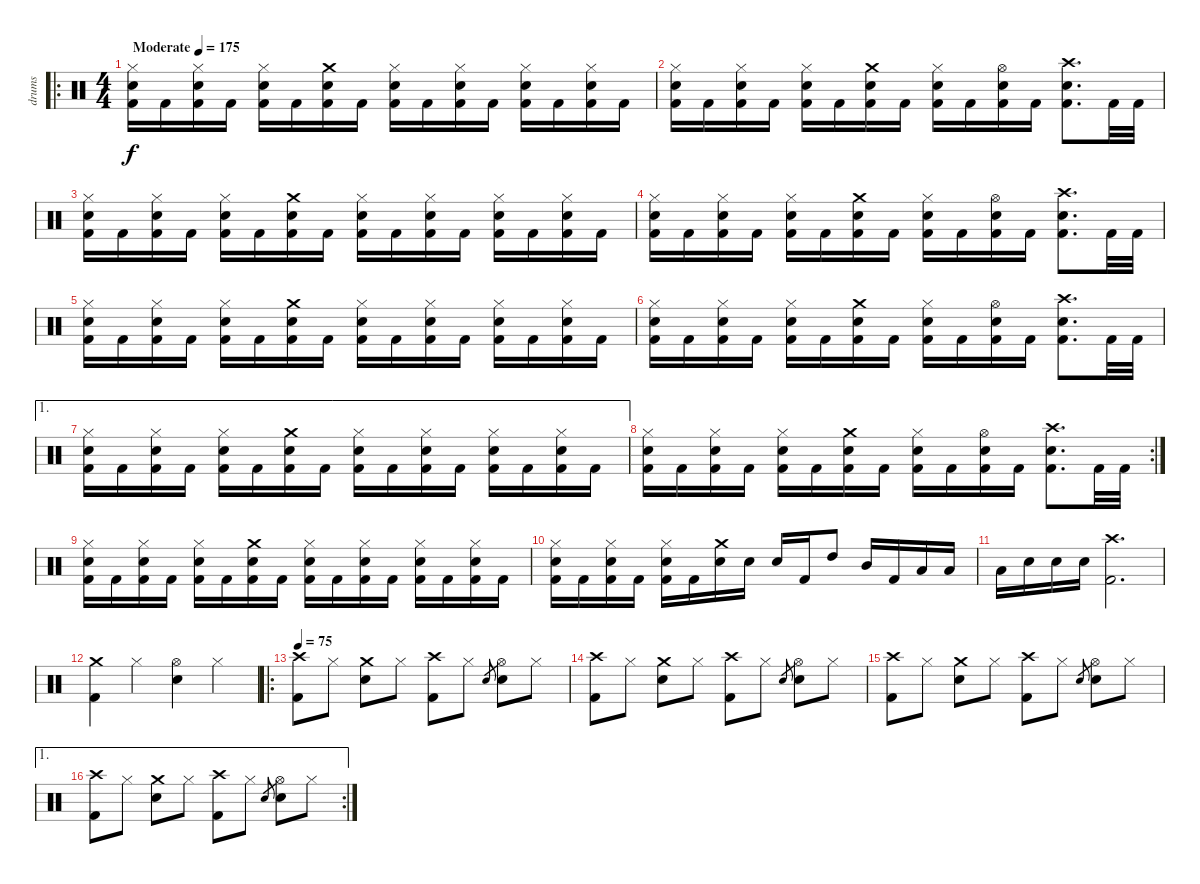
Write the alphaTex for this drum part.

\track ("drums" "drums") {instrument percussion}
\staff {score}
\articulation defaults
\ro
\ts (4 4)
\tempo (175 "Moderate")
\clef neutral
\ks c
("Hi-Hat (closed)" "Electric Snare (hit)" "Kick (hit) 2").16{dy f} "Kick (hit) 2".16 ("Hi-Hat (closed)" "Electric Snare (hit)" "Kick (hit) 2").16 "Kick (hit) 2".16 ("Hi-Hat (closed)" "Electric Snare (hit)" "Kick (hit) 2").16 "Kick (hit) 2".16 ("Crash medium (hit)" "Electric Snare (hit)" "Kick (hit) 2").16 "Kick (hit) 2".16 ("Hi-Hat (closed)" "Electric Snare (hit)" "Kick (hit) 2").16 "Kick (hit) 2".16 ("Hi-Hat (closed)" "Electric Snare (hit)" "Kick (hit) 2").16 "Kick (hit) 2".16 ("Hi-Hat (closed)" "Electric Snare (hit)" "Kick (hit) 2").16 "Kick (hit) 2".16 ("Hi-Hat (closed)" "Electric Snare (hit)" "Kick (hit) 2").16 "Kick (hit) 2".16 |
("Hi-Hat (closed)" "Electric Snare (hit)" "Kick (hit) 2").16 "Kick (hit) 2".16 ("Hi-Hat (closed)" "Electric Snare (hit)" "Kick (hit) 2").16 "Kick (hit) 2".16 ("Hi-Hat (closed)" "Electric Snare (hit)" "Kick (hit) 2").16 "Kick (hit) 2".16 ("Crash medium (hit)" "Electric Snare (hit)" "Kick (hit) 2").16 "Kick (hit) 2".16 ("Hi-Hat (closed)" "Electric Snare (hit)" "Kick (hit) 2").16 "Kick (hit) 2".16 ("Hi-Hat (open)" "Electric Snare (hit)" "Kick (hit) 2").16 "Kick (hit) 2".16 ("Crash high (hit)" "Electric Snare (hit)" "Kick (hit) 2").8{d} "Kick (hit) 2".32 "Kick (hit) 2".32 |
("Hi-Hat (closed)" "Electric Snare (hit)" "Kick (hit) 2").16 "Kick (hit) 2".16 ("Hi-Hat (closed)" "Electric Snare (hit)" "Kick (hit) 2").16 "Kick (hit) 2".16 ("Hi-Hat (closed)" "Electric Snare (hit)" "Kick (hit) 2").16 "Kick (hit) 2".16 ("Crash medium (hit)" "Electric Snare (hit)" "Kick (hit) 2").16 "Kick (hit) 2".16 ("Hi-Hat (closed)" "Electric Snare (hit)" "Kick (hit) 2").16 "Kick (hit) 2".16 ("Hi-Hat (closed)" "Electric Snare (hit)" "Kick (hit) 2").16 "Kick (hit) 2".16 ("Hi-Hat (closed)" "Electric Snare (hit)" "Kick (hit) 2").16 "Kick (hit) 2".16 ("Hi-Hat (closed)" "Electric Snare (hit)" "Kick (hit) 2").16 "Kick (hit) 2".16 |
("Hi-Hat (closed)" "Electric Snare (hit)" "Kick (hit) 2").16 "Kick (hit) 2".16 ("Hi-Hat (closed)" "Electric Snare (hit)" "Kick (hit) 2").16 "Kick (hit) 2".16 ("Hi-Hat (closed)" "Electric Snare (hit)" "Kick (hit) 2").16 "Kick (hit) 2".16 ("Crash medium (hit)" "Electric Snare (hit)" "Kick (hit) 2").16 "Kick (hit) 2".16 ("Hi-Hat (closed)" "Electric Snare (hit)" "Kick (hit) 2").16 "Kick (hit) 2".16 ("Hi-Hat (open)" "Electric Snare (hit)" "Kick (hit) 2").16 "Kick (hit) 2".16 ("Crash high (hit)" "Electric Snare (hit)" "Kick (hit) 2").8{d} "Kick (hit) 2".32 "Kick (hit) 2".32 |
("Hi-Hat (closed)" "Electric Snare (hit)" "Kick (hit) 2").16 "Kick (hit) 2".16 ("Hi-Hat (closed)" "Electric Snare (hit)" "Kick (hit) 2").16 "Kick (hit) 2".16 ("Hi-Hat (closed)" "Electric Snare (hit)" "Kick (hit) 2").16 "Kick (hit) 2".16 ("Crash medium (hit)" "Electric Snare (hit)" "Kick (hit) 2").16 "Kick (hit) 2".16 ("Hi-Hat (closed)" "Electric Snare (hit)" "Kick (hit) 2").16 "Kick (hit) 2".16 ("Hi-Hat (closed)" "Electric Snare (hit)" "Kick (hit) 2").16 "Kick (hit) 2".16 ("Hi-Hat (closed)" "Electric Snare (hit)" "Kick (hit) 2").16 "Kick (hit) 2".16 ("Hi-Hat (closed)" "Electric Snare (hit)" "Kick (hit) 2").16 "Kick (hit) 2".16 |
("Hi-Hat (closed)" "Electric Snare (hit)" "Kick (hit) 2").16 "Kick (hit) 2".16 ("Hi-Hat (closed)" "Electric Snare (hit)" "Kick (hit) 2").16 "Kick (hit) 2".16 ("Hi-Hat (closed)" "Electric Snare (hit)" "Kick (hit) 2").16 "Kick (hit) 2".16 ("Crash medium (hit)" "Electric Snare (hit)" "Kick (hit) 2").16 "Kick (hit) 2".16 ("Hi-Hat (closed)" "Electric Snare (hit)" "Kick (hit) 2").16 "Kick (hit) 2".16 ("Hi-Hat (open)" "Electric Snare (hit)" "Kick (hit) 2").16 "Kick (hit) 2".16 ("Crash high (hit)" "Electric Snare (hit)" "Kick (hit) 2").8{d} "Kick (hit) 2".32 "Kick (hit) 2".32 |
\ae 1
("Hi-Hat (closed)" "Electric Snare (hit)" "Kick (hit) 2").16 "Kick (hit) 2".16 ("Hi-Hat (closed)" "Electric Snare (hit)" "Kick (hit) 2").16 "Kick (hit) 2".16 ("Hi-Hat (closed)" "Electric Snare (hit)" "Kick (hit) 2").16 "Kick (hit) 2".16 ("Crash medium (hit)" "Electric Snare (hit)" "Kick (hit) 2").16 "Kick (hit) 2".16 ("Hi-Hat (closed)" "Electric Snare (hit)" "Kick (hit) 2").16 "Kick (hit) 2".16 ("Hi-Hat (closed)" "Electric Snare (hit)" "Kick (hit) 2").16 "Kick (hit) 2".16 ("Hi-Hat (closed)" "Electric Snare (hit)" "Kick (hit) 2").16 "Kick (hit) 2".16 ("Hi-Hat (closed)" "Electric Snare (hit)" "Kick (hit) 2").16 "Kick (hit) 2".16 |
\rc 2
("Hi-Hat (closed)" "Electric Snare (hit)" "Kick (hit) 2").16 "Kick (hit) 2".16 ("Hi-Hat (closed)" "Electric Snare (hit)" "Kick (hit) 2").16 "Kick (hit) 2".16 ("Hi-Hat (closed)" "Electric Snare (hit)" "Kick (hit) 2").16 "Kick (hit) 2".16 ("Crash medium (hit)" "Electric Snare (hit)" "Kick (hit) 2").16 "Kick (hit) 2".16 ("Hi-Hat (closed)" "Electric Snare (hit)" "Kick (hit) 2").16 "Kick (hit) 2".16 ("Hi-Hat (open)" "Electric Snare (hit)" "Kick (hit) 2").16 "Kick (hit) 2".16 ("Crash high (hit)" "Electric Snare (hit)" "Kick (hit) 2").8{d} "Kick (hit) 2".32 "Kick (hit) 2".32 |
("Hi-Hat (closed)" "Electric Snare (hit)" "Kick (hit) 2").16 "Kick (hit) 2".16 ("Hi-Hat (closed)" "Electric Snare (hit)" "Kick (hit) 2").16 "Kick (hit) 2".16 ("Hi-Hat (closed)" "Electric Snare (hit)" "Kick (hit) 2").16 "Kick (hit) 2".16 ("Crash medium (hit)" "Electric Snare (hit)" "Kick (hit) 2").16 "Kick (hit) 2".16 ("Hi-Hat (closed)" "Electric Snare (hit)" "Kick (hit) 2").16 "Kick (hit) 2".16 ("Hi-Hat (closed)" "Electric Snare (hit)" "Kick (hit) 2").16 "Kick (hit) 2".16 ("Hi-Hat (closed)" "Electric Snare (hit)" "Kick (hit) 2").16 "Kick (hit) 2".16 ("Hi-Hat (closed)" "Electric Snare (hit)" "Kick (hit) 2").16 "Kick (hit) 2".16 |
("Hi-Hat (closed)" "Electric Snare (hit)" "Kick (hit) 2").16 "Kick (hit) 2".16 ("Hi-Hat (closed)" "Electric Snare (hit)" "Kick (hit) 2").16 "Kick (hit) 2".16 ("Hi-Hat (closed)" "Electric Snare (hit)" "Kick (hit) 2").16 "Kick (hit) 2".16 ("Crash medium (hit)" "Electric Snare (hit)").16 "Electric Snare (hit)".16 "Electric Snare (hit)".16 "Kick (hit) 2".16 "High Tom (hit)".8 "Mid Tom (hit)".16 "Kick (hit) 2".16 "Low Tom (hit)".16 "Low Tom (hit)".16 |
"Low Tom (hit)".16 "Electric Snare (hit)".16 "Electric Snare (hit)".16 "Electric Snare (hit)".16 ("Crash high (hit)" "Kick (hit) 2").2{d} |
("Crash medium (hit)" "Kick (hit) 2").4 "Hi-Hat (closed)".4 ("Hi-Hat (open)" "Electric Snare (hit)").4 "Hi-Hat (closed)".4 |
\ro
\tempo 75
("Crash high (hit)" "Kick (hit) 2").8 "Hi-Hat (closed)".8 ("Crash medium (hit)" "Electric Snare (hit)").8 "Hi-Hat (closed)".8 ("Crash high (hit)" "Kick (hit) 2").8 "Hi-Hat (closed)".8 "Electric Snare (hit)".8{gr} ("Hi-Hat (open)" "Electric Snare (hit)").8 "Hi-Hat (closed)".8 |
("Crash high (hit)" "Kick (hit) 2").8 "Hi-Hat (closed)".8 ("Crash medium (hit)" "Electric Snare (hit)").8 "Hi-Hat (closed)".8 ("Crash high (hit)" "Kick (hit) 2").8 "Hi-Hat (closed)".8 "Electric Snare (hit)".8{gr} ("Hi-Hat (open)" "Electric Snare (hit)").8 "Hi-Hat (closed)".8 |
("Crash high (hit)" "Kick (hit) 2").8 "Hi-Hat (closed)".8 ("Crash medium (hit)" "Electric Snare (hit)").8 "Hi-Hat (closed)".8 ("Crash high (hit)" "Kick (hit) 2").8 "Hi-Hat (closed)".8 "Electric Snare (hit)".8{gr} ("Hi-Hat (open)" "Electric Snare (hit)").8 "Hi-Hat (closed)".8 |
\ae 1
\rc 2
("Crash high (hit)" "Kick (hit) 2").8 "Hi-Hat (closed)".8 ("Crash medium (hit)" "Electric Snare (hit)").8 "Hi-Hat (closed)".8 ("Crash high (hit)" "Kick (hit) 2").8 "Hi-Hat (closed)".8 "Electric Snare (hit)".8{gr} ("Hi-Hat (open)" "Electric Snare (hit)").8 "Hi-Hat (closed)".8
